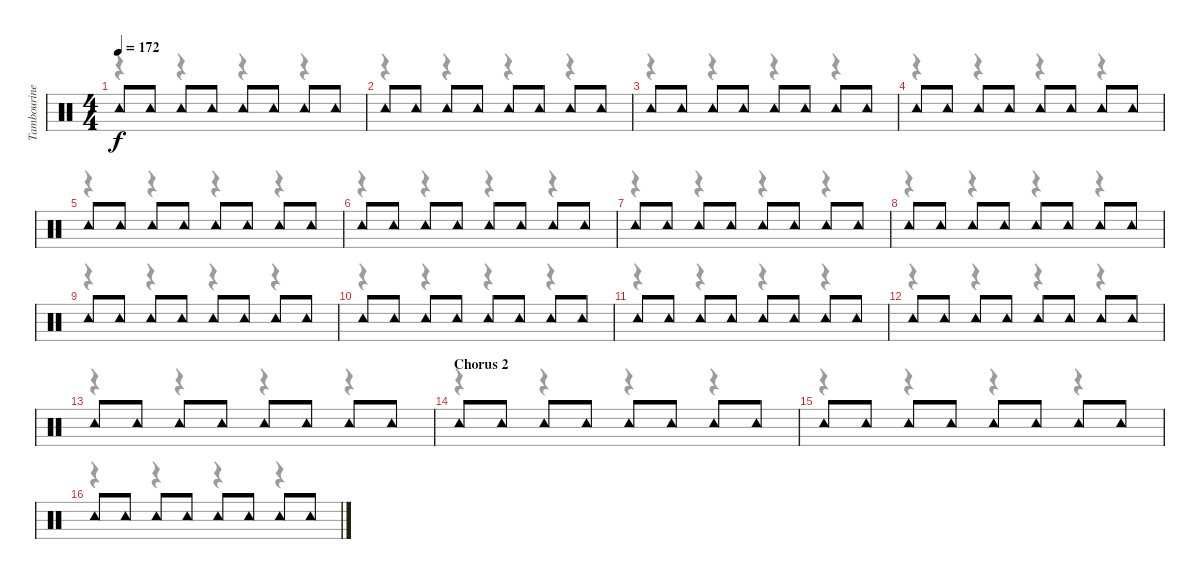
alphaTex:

\track ("Tambourine" "Tambourine") {instrument percussion}
\staff {score}
\articulation defaults
\voice
\ts (4 4)
\tempo 172
\clef neutral
\ks c "Tambourine (hit)".8{dy f} "Tambourine (hit)".8 "Tambourine (hit)".8 "Tambourine (hit)".8 "Tambourine (hit)".8 "Tambourine (hit)".8 "Tambourine (hit)".8 "Tambourine (hit)".8
|
"Tambourine (hit)".8 "Tambourine (hit)".8 "Tambourine (hit)".8 "Tambourine (hit)".8 "Tambourine (hit)".8 "Tambourine (hit)".8 "Tambourine (hit)".8 "Tambourine (hit)".8 |
"Tambourine (hit)".8 "Tambourine (hit)".8 "Tambourine (hit)".8 "Tambourine (hit)".8 "Tambourine (hit)".8 "Tambourine (hit)".8 "Tambourine (hit)".8 "Tambourine (hit)".8 |
"Tambourine (hit)".8 "Tambourine (hit)".8 "Tambourine (hit)".8 "Tambourine (hit)".8 "Tambourine (hit)".8 "Tambourine (hit)".8 "Tambourine (hit)".8 "Tambourine (hit)".8 |
"Tambourine (hit)".8 "Tambourine (hit)".8 "Tambourine (hit)".8 "Tambourine (hit)".8 "Tambourine (hit)".8 "Tambourine (hit)".8 "Tambourine (hit)".8 "Tambourine (hit)".8 |
"Tambourine (hit)".8 "Tambourine (hit)".8 "Tambourine (hit)".8 "Tambourine (hit)".8 "Tambourine (hit)".8 "Tambourine (hit)".8 "Tambourine (hit)".8 "Tambourine (hit)".8 |
"Tambourine (hit)".8 "Tambourine (hit)".8 "Tambourine (hit)".8 "Tambourine (hit)".8 "Tambourine (hit)".8 "Tambourine (hit)".8 "Tambourine (hit)".8 "Tambourine (hit)".8 |
"Tambourine (hit)".8 "Tambourine (hit)".8 "Tambourine (hit)".8 "Tambourine (hit)".8 "Tambourine (hit)".8 "Tambourine (hit)".8 "Tambourine (hit)".8 "Tambourine (hit)".8 |
"Tambourine (hit)".8 "Tambourine (hit)".8 "Tambourine (hit)".8 "Tambourine (hit)".8 "Tambourine (hit)".8 "Tambourine (hit)".8 "Tambourine (hit)".8 "Tambourine (hit)".8 |
"Tambourine (hit)".8 "Tambourine (hit)".8 "Tambourine (hit)".8 "Tambourine (hit)".8 "Tambourine (hit)".8 "Tambourine (hit)".8 "Tambourine (hit)".8 "Tambourine (hit)".8 |
"Tambourine (hit)".8 "Tambourine (hit)".8 "Tambourine (hit)".8 "Tambourine (hit)".8 "Tambourine (hit)".8 "Tambourine (hit)".8 "Tambourine (hit)".8 "Tambourine (hit)".8 |
"Tambourine (hit)".8 "Tambourine (hit)".8 "Tambourine (hit)".8 "Tambourine (hit)".8 "Tambourine (hit)".8 "Tambourine (hit)".8 "Tambourine (hit)".8 "Tambourine (hit)".8 |
"Tambourine (hit)".8 "Tambourine (hit)".8 "Tambourine (hit)".8 "Tambourine (hit)".8 "Tambourine (hit)".8 "Tambourine (hit)".8 "Tambourine (hit)".8 "Tambourine (hit)".8 |
\section ("" "Chorus 2")
"Tambourine (hit)".8 "Tambourine (hit)".8 "Tambourine (hit)".8 "Tambourine (hit)".8 "Tambourine (hit)".8 "Tambourine (hit)".8 "Tambourine (hit)".8 "Tambourine (hit)".8 |
"Tambourine (hit)".8 "Tambourine (hit)".8 "Tambourine (hit)".8 "Tambourine (hit)".8 "Tambourine (hit)".8 "Tambourine (hit)".8 "Tambourine (hit)".8 "Tambourine (hit)".8 |
"Tambourine (hit)".8 "Tambourine (hit)".8 "Tambourine (hit)".8 "Tambourine (hit)".8 "Tambourine (hit)".8 "Tambourine (hit)".8 "Tambourine (hit)".8 "Tambourine (hit)".8
\voice
\clef neutral
\ottava regular
\simile none
\ks c
r.4{dy f} r.4 r.4 r.4 |
r.4 r.4 r.4 r.4 |
r.4 r.4 r.4 r.4 |
r.4 r.4 r.4 r.4 |
r.4 r.4 r.4 r.4 |
r.4 r.4 r.4 r.4 |
r.4 r.4 r.4 r.4 |
r.4 r.4 r.4 r.4 |
r.4 r.4 r.4 r.4 |
r.4 r.4 r.4 r.4 |
r.4 r.4 r.4 r.4 |
r.4 r.4 r.4 r.4 |
r.4 r.4 r.4 r.4 |
r.4 r.4 r.4 r.4 |
r.4 r.4 r.4 r.4 |
r.4 r.4 r.4 r.4
